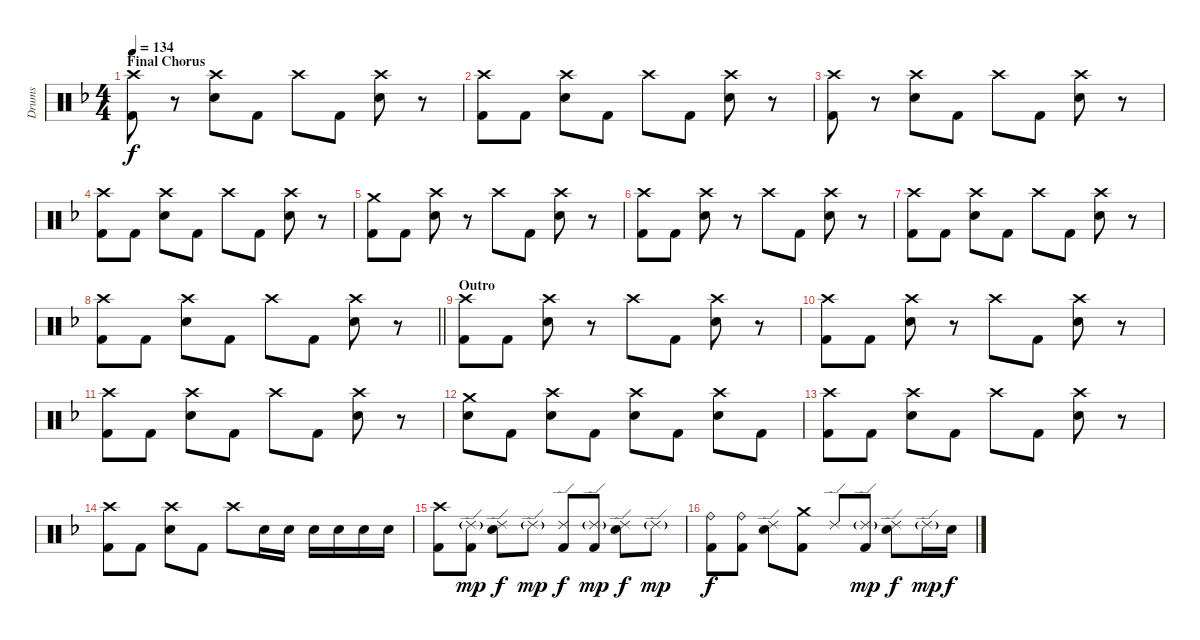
\track ("Drums" "Drums") {instrument percussion}
\staff {score}
\articulation defaults
\ts (4 4)
\section ("" "Final Chorus")
\tempo 134
\clef neutral
\ks f
("Crash high (hit)" "Kick (hit) 2").8{dy f} r.8 ("Crash high (hit)" "Electric Snare (hit)").8 "Kick (hit) 2".8 "Crash high (hit)".8 "Kick (hit) 2".8 ("Crash high (hit)" "Electric Snare (hit)").8 r.8 |
("Crash high (hit)" "Kick (hit) 2").8 "Kick (hit) 2".8 ("Crash high (hit)" "Electric Snare (hit)").8 "Kick (hit) 2".8 "Crash high (hit)".8 "Kick (hit) 2".8 ("Crash high (hit)" "Electric Snare (hit)").8 r.8 |
("Crash high (hit)" "Kick (hit) 2").8 r.8 ("Crash high (hit)" "Electric Snare (hit)").8 "Kick (hit) 2".8 "Crash high (hit)".8 "Kick (hit) 2".8 ("Crash high (hit)" "Electric Snare (hit)").8 r.8 |
("Crash high (hit)" "Kick (hit) 2").8 "Kick (hit) 2".8 ("Crash high (hit)" "Electric Snare (hit)").8 "Kick (hit) 2".8 "Crash high (hit)".8 "Kick (hit) 2".8 ("Crash high (hit)" "Electric Snare (hit)").8 r.8 |
("Crash medium (hit)" "Kick (hit) 2").8 "Kick (hit) 2".8 ("Crash high (hit)" "Electric Snare (hit)").8 r.8 "Crash high (hit)".8 "Kick (hit) 2".8 ("Crash high (hit)" "Electric Snare (hit)").8 r.8 |
("Crash high (hit)" "Kick (hit) 2").8 "Kick (hit) 2".8 ("Crash high (hit)" "Electric Snare (hit)").8 r.8 "Crash high (hit)".8 "Kick (hit) 2".8 ("Crash high (hit)" "Electric Snare (hit)").8 r.8 |
("Crash high (hit)" "Kick (hit) 2").8 "Kick (hit) 2".8 ("Crash high (hit)" "Electric Snare (hit)").8 "Kick (hit) 2".8 "Crash high (hit)".8 "Kick (hit) 2".8 ("Crash high (hit)" "Electric Snare (hit)").8 r.8 |
\barLineRight lightlight
("Crash high (hit)" "Kick (hit) 2").8 "Kick (hit) 2".8 ("Crash high (hit)" "Electric Snare (hit)").8 "Kick (hit) 2".8 "Crash high (hit)".8 "Kick (hit) 2".8 ("Crash high (hit)" "Electric Snare (hit)").8 r.8 |
\section ("" "Outro")
("Crash high (hit)" "Kick (hit) 2").8 "Kick (hit) 2".8 ("Crash high (hit)" "Electric Snare (hit)").8 r.8 "Crash high (hit)".8 "Kick (hit) 2".8 ("Crash high (hit)" "Electric Snare (hit)").8 r.8 |
("Crash high (hit)" "Kick (hit) 2").8 "Kick (hit) 2".8 ("Crash high (hit)" "Electric Snare (hit)").8 r.8 "Crash high (hit)".8 "Kick (hit) 2".8 ("Crash high (hit)" "Electric Snare (hit)").8 r.8 |
("Crash high (hit)" "Kick (hit) 2").8 "Kick (hit) 2".8 ("Crash high (hit)" "Electric Snare (hit)").8 "Kick (hit) 2".8 "Crash high (hit)".8 "Kick (hit) 2".8 ("Crash high (hit)" "Electric Snare (hit)").8 r.8 |
("Crash medium (hit)" "Electric Snare (hit)").8 "Kick (hit) 2".8 ("Crash high (hit)" "Electric Snare (hit)").8 "Kick (hit) 2".8 ("Crash high (hit)" "Electric Snare (hit)").8 "Kick (hit) 2".8 ("Crash high (hit)" "Electric Snare (hit)").8 "Kick (hit) 2".8 |
("Crash high (hit)" "Kick (hit) 2").8 "Kick (hit) 2".8 ("Crash high (hit)" "Electric Snare (hit)").8 "Kick (hit) 2".8 "Crash high (hit)".8 "Kick (hit) 2".8 ("Crash high (hit)" "Electric Snare (hit)").8 r.8 |
("Crash high (hit)" "Kick (hit) 2").8 "Kick (hit) 2".8 ("Crash high (hit)" "Electric Snare (hit)").8 "Kick (hit) 2".8 "Crash high (hit)".8 "Electric Snare (hit)".16 "Electric Snare (hit)".16 "Electric Snare (hit)".16 "Electric Snare (hit)".16 "Electric Snare (hit)".16 "Electric Snare (hit)".16 |
("Crash high (hit)" "Kick (hit) 2").8 ("Ride (edge) 2"{g} "Kick (hit) 2").8{dy mp} ("Ride (edge) 2" "Electric Snare (hit)").8{dy f} "Ride (edge) 2"{g}.8{dy mp} ("Ride (edge) 2" "Kick (hit) 2").8{dy f} ("Ride (edge) 2"{g} "Kick (hit) 2").8{dy mp} ("Ride (edge) 2" "Electric Snare (hit)").8{dy f} "Ride (edge) 2"{g}.8{dy mp} |
("Ride (bell)" "Kick (hit) 2").8{dy f} ("Ride (bell)" "Kick (hit) 2").8 ("Ride (edge) 2" "Electric Snare (hit)").8 ("Crash medium (hit)" "Kick (hit) 2").8 "Ride (edge) 2".8 ("Ride (edge) 2"{g} "Kick (hit) 2").8{dy mp} ("Ride (edge) 2" "Electric Snare (hit)").8{dy f} "Ride (edge) 2"{g}.16{dy mp} "Electric Snare (hit)".16{dy f}
